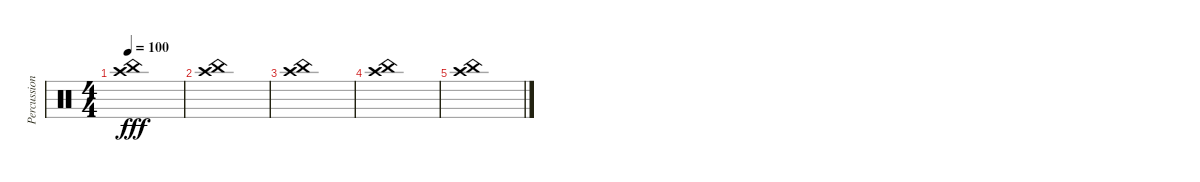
\track ("Percussion" "Percussion") {instrument percussion}
\staff {score}
\articulation defaults
\ts (4 4)
\tempo 100
\clef neutral
\ks c
("China (hit)" "Crash high (hit)").1{dy fff} |
("China (hit)" "Crash high (hit)").1 |
("China (hit)" "Crash high (hit)").1 |
("China (hit)" "Crash high (hit)").1 |
("China (hit)" "Crash high (hit)").1
